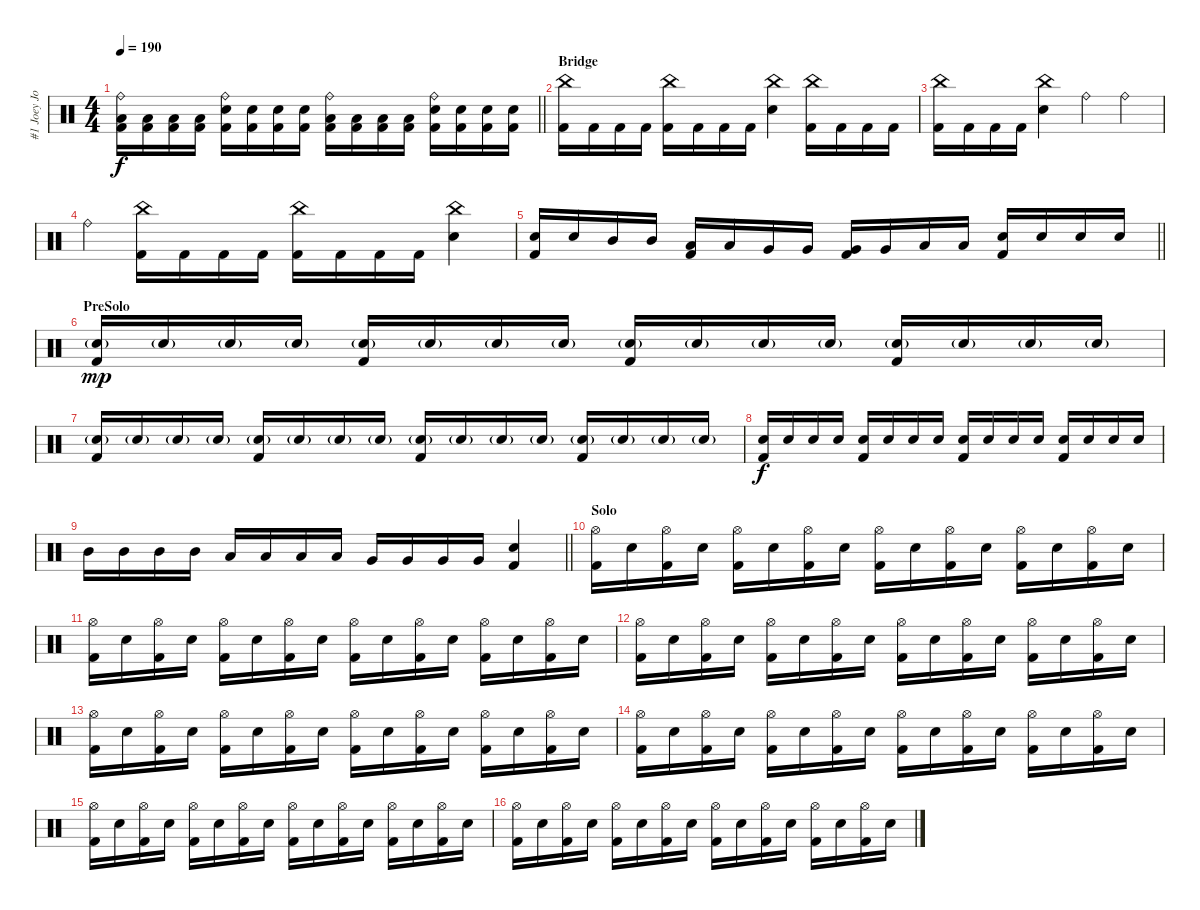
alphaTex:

\track ("#1 Joey Jordison" "#1 Joey Jo") {instrument percussion}
\staff {score}
\articulation defaults
\ts (4 4)
\tempo 190
\clef neutral
\barLineRight lightlight
\ks c
("Ride (bell)" "Low Floor Tom (hit)" "Kick (hit) 2").16{dy f} ("Low Floor Tom (hit)" "Kick (hit) 2").16 ("Low Floor Tom (hit)" "Kick (hit) 2").16 ("Low Floor Tom (hit)" "Kick (hit) 2").16 ("Ride (bell)" "Electric Snare (hit)" "Kick (hit) 2").16 ("Electric Snare (hit)" "Kick (hit) 2").16 ("Electric Snare (hit)" "Kick (hit) 2").16 ("Electric Snare (hit)" "Kick (hit) 2").16 ("Ride (bell)" "Low Floor Tom (hit)" "Kick (hit) 2").16 ("Low Floor Tom (hit)" "Kick (hit) 2").16 ("Low Floor Tom (hit)" "Kick (hit) 2").16 ("Low Floor Tom (hit)" "Kick (hit) 2").16 ("Ride (bell)" "Electric Snare (hit)" "Kick (hit) 2").16 ("Electric Snare (hit)" "Kick (hit) 2").16 ("Electric Snare (hit)" "Kick (hit) 2").16 ("Electric Snare (hit)" "Kick (hit) 2").16 |
\section ("" "Bridge")
("China (hit)" "Kick (hit) 2").16 "Kick (hit) 2".16 "Kick (hit) 2".16 "Kick (hit) 2".16 ("China (hit)" "Kick (hit) 2").16 "Kick (hit) 2".16 "Kick (hit) 2".16 "Kick (hit) 2".16 ("China (hit)" "Electric Snare (hit)").4 ("China (hit)" "Kick (hit) 2").16 "Kick (hit) 2".16 "Kick (hit) 2".16 "Kick (hit) 2".16 |
("China (hit)" "Kick (hit) 2").16 "Kick (hit) 2".16 "Kick (hit) 2".16 "Kick (hit) 2".16 ("China (hit)" "Electric Snare (hit)").4 "Ride (bell)".4 "Ride (bell)".4 |
"Ride (bell)".4 ("China (hit)" "Kick (hit) 2").16 "Kick (hit) 2".16 "Kick (hit) 2".16 "Kick (hit) 2".16 ("China (hit)" "Kick (hit) 2").16 "Kick (hit) 2".16 "Kick (hit) 2".16 "Kick (hit) 2".16 ("China (hit)" "Electric Snare (hit)").4 |
\barLineRight lightlight
("Electric Snare (hit)" "Kick (hit) 2").16 "Electric Snare (hit)".16 "Mid Tom (hit)".16 "Mid Tom (hit)".16 ("Low Tom (hit)" "Kick (hit) 2").16 "Low Tom (hit)".16 "Very Low Tom (hit)".16 "Very Low Tom (hit)".16 ("Very Low Tom (hit)" "Kick (hit) 2").16 "Very Low Tom (hit)".16 "Low Floor Tom (hit)".16 "Low Floor Tom (hit)".16 ("Electric Snare (hit)" "Kick (hit) 2").16 "Electric Snare (hit)".16 "Electric Snare (hit)".16 "Electric Snare (hit)".16 |
\section ("" "PreSolo")
("Electric Snare (hit)"{g} "Kick (hit) 2").16{dy mp} "Electric Snare (hit)"{g}.16 "Electric Snare (hit)"{g}.16 "Electric Snare (hit)"{g}.16 ("Electric Snare (hit)"{g} "Kick (hit) 2").16 "Electric Snare (hit)"{g}.16 "Electric Snare (hit)"{g}.16 "Electric Snare (hit)"{g}.16 ("Electric Snare (hit)"{g} "Kick (hit) 2").16 "Electric Snare (hit)"{g}.16 "Electric Snare (hit)"{g}.16 "Electric Snare (hit)"{g}.16 ("Electric Snare (hit)"{g} "Kick (hit) 2").16 "Electric Snare (hit)"{g}.16 "Electric Snare (hit)"{g}.16 "Electric Snare (hit)"{g}.16 |
("Electric Snare (hit)"{g} "Kick (hit) 2").16 "Electric Snare (hit)"{g}.16 "Electric Snare (hit)"{g}.16 "Electric Snare (hit)"{g}.16 ("Electric Snare (hit)"{g} "Kick (hit) 2").16 "Electric Snare (hit)"{g}.16 "Electric Snare (hit)"{g}.16 "Electric Snare (hit)"{g}.16 ("Electric Snare (hit)"{g} "Kick (hit) 2").16 "Electric Snare (hit)"{g}.16 "Electric Snare (hit)"{g}.16 "Electric Snare (hit)"{g}.16 ("Electric Snare (hit)"{g} "Kick (hit) 2").16 "Electric Snare (hit)"{g}.16 "Electric Snare (hit)"{g}.16 "Electric Snare (hit)"{g}.16 |
("Electric Snare (hit)" "Kick (hit) 2").16{dy f} "Electric Snare (hit)".16 "Electric Snare (hit)".16 "Electric Snare (hit)".16 ("Electric Snare (hit)" "Kick (hit) 2").16 "Electric Snare (hit)".16 "Electric Snare (hit)".16 "Electric Snare (hit)".16 ("Electric Snare (hit)" "Kick (hit) 2").16 "Electric Snare (hit)".16 "Electric Snare (hit)".16 "Electric Snare (hit)".16 ("Electric Snare (hit)" "Kick (hit) 2").16 "Electric Snare (hit)".16 "Electric Snare (hit)".16 "Electric Snare (hit)".16 |
\barLineRight lightlight "Mid Tom (hit)".16 "Mid Tom (hit)".16 "Mid Tom (hit)".16 "Mid Tom (hit)".16 "Low Tom (hit)".16 "Low Tom (hit)".16 "Low Tom (hit)".16 "Low Tom (hit)".16 "Very Low Tom (hit)".16 "Very Low Tom (hit)".16 "Very Low Tom (hit)".16 "Very Low Tom (hit)".16
("Electric Snare (hit)" "Kick (hit) 2").4 |
\section ("" "Solo")
("Hi-Hat (open)" "Kick (hit) 2").16 "Electric Snare (hit)".16 ("Hi-Hat (open)" "Kick (hit) 2").16 "Electric Snare (hit)".16 ("Hi-Hat (open)" "Kick (hit) 2").16 "Electric Snare (hit)".16 ("Hi-Hat (open)" "Kick (hit) 2").16 "Electric Snare (hit)".16 ("Hi-Hat (open)" "Kick (hit) 2").16 "Electric Snare (hit)".16 ("Hi-Hat (open)" "Kick (hit) 2").16 "Electric Snare (hit)".16 ("Hi-Hat (open)" "Kick (hit) 2").16 "Electric Snare (hit)".16 ("Hi-Hat (open)" "Kick (hit) 2").16 "Electric Snare (hit)".16 |
("Hi-Hat (open)" "Kick (hit) 2").16 "Electric Snare (hit)".16 ("Hi-Hat (open)" "Kick (hit) 2").16 "Electric Snare (hit)".16 ("Hi-Hat (open)" "Kick (hit) 2").16 "Electric Snare (hit)".16 ("Hi-Hat (open)" "Kick (hit) 2").16 "Electric Snare (hit)".16 ("Hi-Hat (open)" "Kick (hit) 2").16 "Electric Snare (hit)".16 ("Hi-Hat (open)" "Kick (hit) 2").16 "Electric Snare (hit)".16 ("Hi-Hat (open)" "Kick (hit) 2").16 "Electric Snare (hit)".16 ("Hi-Hat (open)" "Kick (hit) 2").16 "Electric Snare (hit)".16 |
("Hi-Hat (open)" "Kick (hit) 2").16 "Electric Snare (hit)".16 ("Hi-Hat (open)" "Kick (hit) 2").16 "Electric Snare (hit)".16 ("Hi-Hat (open)" "Kick (hit) 2").16 "Electric Snare (hit)".16 ("Hi-Hat (open)" "Kick (hit) 2").16 "Electric Snare (hit)".16 ("Hi-Hat (open)" "Kick (hit) 2").16 "Electric Snare (hit)".16 ("Hi-Hat (open)" "Kick (hit) 2").16 "Electric Snare (hit)".16 ("Hi-Hat (open)" "Kick (hit) 2").16 "Electric Snare (hit)".16 ("Hi-Hat (open)" "Kick (hit) 2").16 "Electric Snare (hit)".16 |
("Hi-Hat (open)" "Kick (hit) 2").16 "Electric Snare (hit)".16 ("Hi-Hat (open)" "Kick (hit) 2").16 "Electric Snare (hit)".16 ("Hi-Hat (open)" "Kick (hit) 2").16 "Electric Snare (hit)".16 ("Hi-Hat (open)" "Kick (hit) 2").16 "Electric Snare (hit)".16 ("Hi-Hat (open)" "Kick (hit) 2").16 "Electric Snare (hit)".16 ("Hi-Hat (open)" "Kick (hit) 2").16 "Electric Snare (hit)".16 ("Hi-Hat (open)" "Kick (hit) 2").16 "Electric Snare (hit)".16 ("Hi-Hat (open)" "Kick (hit) 2").16 "Electric Snare (hit)".16 |
("Hi-Hat (open)" "Kick (hit) 2").16 "Electric Snare (hit)".16 ("Hi-Hat (open)" "Kick (hit) 2").16 "Electric Snare (hit)".16 ("Hi-Hat (open)" "Kick (hit) 2").16 "Electric Snare (hit)".16 ("Hi-Hat (open)" "Kick (hit) 2").16 "Electric Snare (hit)".16 ("Hi-Hat (open)" "Kick (hit) 2").16 "Electric Snare (hit)".16 ("Hi-Hat (open)" "Kick (hit) 2").16 "Electric Snare (hit)".16 ("Hi-Hat (open)" "Kick (hit) 2").16 "Electric Snare (hit)".16 ("Hi-Hat (open)" "Kick (hit) 2").16 "Electric Snare (hit)".16 |
("Hi-Hat (open)" "Kick (hit) 2").16 "Electric Snare (hit)".16 ("Hi-Hat (open)" "Kick (hit) 2").16 "Electric Snare (hit)".16 ("Hi-Hat (open)" "Kick (hit) 2").16 "Electric Snare (hit)".16 ("Hi-Hat (open)" "Kick (hit) 2").16 "Electric Snare (hit)".16 ("Hi-Hat (open)" "Kick (hit) 2").16 "Electric Snare (hit)".16 ("Hi-Hat (open)" "Kick (hit) 2").16 "Electric Snare (hit)".16 ("Hi-Hat (open)" "Kick (hit) 2").16 "Electric Snare (hit)".16 ("Hi-Hat (open)" "Kick (hit) 2").16 "Electric Snare (hit)".16 |
("Hi-Hat (open)" "Kick (hit) 2").16 "Electric Snare (hit)".16 ("Hi-Hat (open)" "Kick (hit) 2").16 "Electric Snare (hit)".16 ("Hi-Hat (open)" "Kick (hit) 2").16 "Electric Snare (hit)".16 ("Hi-Hat (open)" "Kick (hit) 2").16 "Electric Snare (hit)".16 ("Hi-Hat (open)" "Kick (hit) 2").16 "Electric Snare (hit)".16 ("Hi-Hat (open)" "Kick (hit) 2").16 "Electric Snare (hit)".16 ("Hi-Hat (open)" "Kick (hit) 2").16 "Electric Snare (hit)".16 ("Hi-Hat (open)" "Kick (hit) 2").16 "Electric Snare (hit)".16
